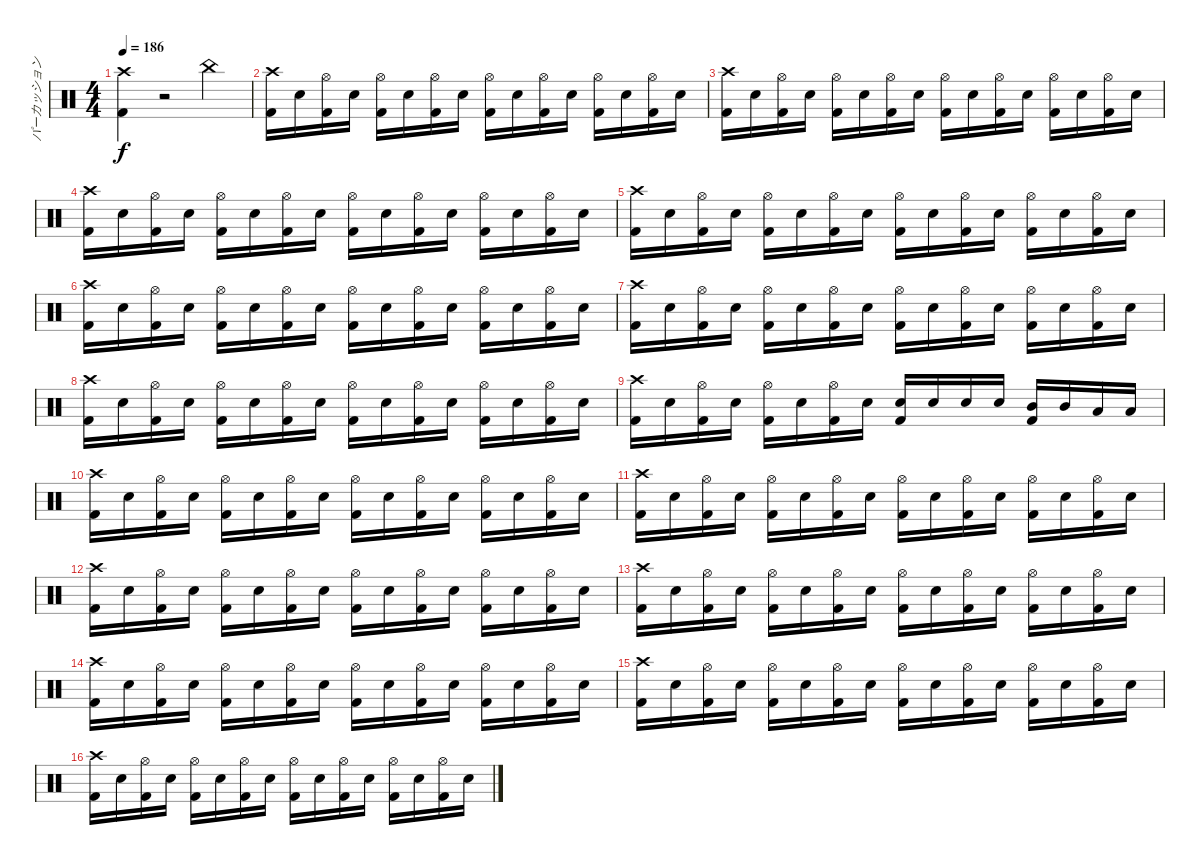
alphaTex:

\track ("パーカッション" "パーカッション") {instrument percussion}
\staff {score}
\articulation defaults
\ts (4 4)
\tempo 186
\clef neutral
\ks c
("Crash high (hit)" "Kick (hit) 2").4{dy f} r.2 "China (hit)".4 |
("Crash high (hit)" "Kick (hit) 2").16 "Snare (hit) 2".16 ("Hi-Hat (open)" "Kick (hit) 2").16 "Snare (hit) 2".16 ("Hi-Hat (open)" "Kick (hit) 2").16 "Snare (hit) 2".16 ("Hi-Hat (open)" "Kick (hit) 2").16 "Snare (hit) 2".16 ("Hi-Hat (open)" "Kick (hit) 2").16 "Snare (hit) 2".16 ("Hi-Hat (open)" "Kick (hit) 2").16 "Snare (hit) 2".16 ("Hi-Hat (open)" "Kick (hit) 2").16 "Snare (hit) 2".16 ("Hi-Hat (open)" "Kick (hit) 2").16 "Snare (hit) 2".16 |
("Crash high (hit)" "Kick (hit) 2").16 "Snare (hit) 2".16 ("Hi-Hat (open)" "Kick (hit) 2").16 "Snare (hit) 2".16 ("Hi-Hat (open)" "Kick (hit) 2").16 "Snare (hit) 2".16 ("Hi-Hat (open)" "Kick (hit) 2").16 "Snare (hit) 2".16 ("Hi-Hat (open)" "Kick (hit) 2").16 "Snare (hit) 2".16 ("Hi-Hat (open)" "Kick (hit) 2").16 "Snare (hit) 2".16 ("Hi-Hat (open)" "Kick (hit) 2").16 "Snare (hit) 2".16 ("Hi-Hat (open)" "Kick (hit) 2").16 "Snare (hit) 2".16 |
("Crash high (hit)" "Kick (hit) 2").16 "Snare (hit) 2".16 ("Hi-Hat (open)" "Kick (hit) 2").16 "Snare (hit) 2".16 ("Hi-Hat (open)" "Kick (hit) 2").16 "Snare (hit) 2".16 ("Hi-Hat (open)" "Kick (hit) 2").16 "Snare (hit) 2".16 ("Hi-Hat (open)" "Kick (hit) 2").16 "Snare (hit) 2".16 ("Hi-Hat (open)" "Kick (hit) 2").16 "Snare (hit) 2".16 ("Hi-Hat (open)" "Kick (hit) 2").16 "Snare (hit) 2".16 ("Hi-Hat (open)" "Kick (hit) 2").16 "Snare (hit) 2".16 |
("Crash high (hit)" "Kick (hit) 2").16 "Snare (hit) 2".16 ("Hi-Hat (open)" "Kick (hit) 2").16 "Snare (hit) 2".16 ("Hi-Hat (open)" "Kick (hit) 2").16 "Snare (hit) 2".16 ("Hi-Hat (open)" "Kick (hit) 2").16 "Snare (hit) 2".16 ("Hi-Hat (open)" "Kick (hit) 2").16 "Snare (hit) 2".16 ("Hi-Hat (open)" "Kick (hit) 2").16 "Snare (hit) 2".16 ("Hi-Hat (open)" "Kick (hit) 2").16 "Snare (hit) 2".16 ("Hi-Hat (open)" "Kick (hit) 2").16 "Snare (hit) 2".16 |
("Crash high (hit)" "Kick (hit) 2").16 "Snare (hit) 2".16 ("Hi-Hat (open)" "Kick (hit) 2").16 "Snare (hit) 2".16 ("Hi-Hat (open)" "Kick (hit) 2").16 "Snare (hit) 2".16 ("Hi-Hat (open)" "Kick (hit) 2").16 "Snare (hit) 2".16 ("Hi-Hat (open)" "Kick (hit) 2").16 "Snare (hit) 2".16 ("Hi-Hat (open)" "Kick (hit) 2").16 "Snare (hit) 2".16 ("Hi-Hat (open)" "Kick (hit) 2").16 "Snare (hit) 2".16 ("Hi-Hat (open)" "Kick (hit) 2").16 "Snare (hit) 2".16 |
("Crash high (hit)" "Kick (hit) 2").16 "Snare (hit) 2".16 ("Hi-Hat (open)" "Kick (hit) 2").16 "Snare (hit) 2".16 ("Hi-Hat (open)" "Kick (hit) 2").16 "Snare (hit) 2".16 ("Hi-Hat (open)" "Kick (hit) 2").16 "Snare (hit) 2".16 ("Hi-Hat (open)" "Kick (hit) 2").16 "Snare (hit) 2".16 ("Hi-Hat (open)" "Kick (hit) 2").16 "Snare (hit) 2".16 ("Hi-Hat (open)" "Kick (hit) 2").16 "Snare (hit) 2".16 ("Hi-Hat (open)" "Kick (hit) 2").16 "Snare (hit) 2".16 |
("Crash high (hit)" "Kick (hit) 2").16 "Snare (hit) 2".16 ("Hi-Hat (open)" "Kick (hit) 2").16 "Snare (hit) 2".16 ("Hi-Hat (open)" "Kick (hit) 2").16 "Snare (hit) 2".16 ("Hi-Hat (open)" "Kick (hit) 2").16 "Snare (hit) 2".16 ("Hi-Hat (open)" "Kick (hit) 2").16 "Snare (hit) 2".16 ("Hi-Hat (open)" "Kick (hit) 2").16 "Snare (hit) 2".16 ("Hi-Hat (open)" "Kick (hit) 2").16 "Snare (hit) 2".16 ("Hi-Hat (open)" "Kick (hit) 2").16 "Snare (hit) 2".16 |
("Crash high (hit)" "Kick (hit) 2").16 "Snare (hit) 2".16 ("Hi-Hat (open)" "Kick (hit) 2").16 "Snare (hit) 2".16 ("Hi-Hat (open)" "Kick (hit) 2").16 "Snare (hit) 2".16 ("Hi-Hat (open)" "Kick (hit) 2").16 "Snare (hit) 2".16 ("Snare (hit) 2" "Kick (hit) 2").16 "Snare (hit) 2".16 "Snare (hit) 2".16 "Snare (hit) 2".16 ("Mid Tom (hit)" "Kick (hit) 2").16 "Mid Tom (hit)".16 "Low Tom (hit)".16 "Low Tom (hit)".16 |
("Crash high (hit)" "Kick (hit) 2").16 "Snare (hit) 2".16 ("Hi-Hat (open)" "Kick (hit) 2").16 "Snare (hit) 2".16 ("Hi-Hat (open)" "Kick (hit) 2").16 "Snare (hit) 2".16 ("Hi-Hat (open)" "Kick (hit) 2").16 "Snare (hit) 2".16 ("Hi-Hat (open)" "Kick (hit) 2").16 "Snare (hit) 2".16 ("Hi-Hat (open)" "Kick (hit) 2").16 "Snare (hit) 2".16 ("Hi-Hat (open)" "Kick (hit) 2").16 "Snare (hit) 2".16 ("Hi-Hat (open)" "Kick (hit) 2").16 "Snare (hit) 2".16 |
("Crash high (hit)" "Kick (hit) 2").16 "Snare (hit) 2".16 ("Hi-Hat (open)" "Kick (hit) 2").16 "Snare (hit) 2".16 ("Hi-Hat (open)" "Kick (hit) 2").16 "Snare (hit) 2".16 ("Hi-Hat (open)" "Kick (hit) 2").16 "Snare (hit) 2".16 ("Hi-Hat (open)" "Kick (hit) 2").16 "Snare (hit) 2".16 ("Hi-Hat (open)" "Kick (hit) 2").16 "Snare (hit) 2".16 ("Hi-Hat (open)" "Kick (hit) 2").16 "Snare (hit) 2".16 ("Hi-Hat (open)" "Kick (hit) 2").16 "Snare (hit) 2".16 |
("Crash high (hit)" "Kick (hit) 2").16 "Snare (hit) 2".16 ("Hi-Hat (open)" "Kick (hit) 2").16 "Snare (hit) 2".16 ("Hi-Hat (open)" "Kick (hit) 2").16 "Snare (hit) 2".16 ("Hi-Hat (open)" "Kick (hit) 2").16 "Snare (hit) 2".16 ("Hi-Hat (open)" "Kick (hit) 2").16 "Snare (hit) 2".16 ("Hi-Hat (open)" "Kick (hit) 2").16 "Snare (hit) 2".16 ("Hi-Hat (open)" "Kick (hit) 2").16 "Snare (hit) 2".16 ("Hi-Hat (open)" "Kick (hit) 2").16 "Snare (hit) 2".16 |
("Crash high (hit)" "Kick (hit) 2").16 "Snare (hit) 2".16 ("Hi-Hat (open)" "Kick (hit) 2").16 "Snare (hit) 2".16 ("Hi-Hat (open)" "Kick (hit) 2").16 "Snare (hit) 2".16 ("Hi-Hat (open)" "Kick (hit) 2").16 "Snare (hit) 2".16 ("Hi-Hat (open)" "Kick (hit) 2").16 "Snare (hit) 2".16 ("Hi-Hat (open)" "Kick (hit) 2").16 "Snare (hit) 2".16 ("Hi-Hat (open)" "Kick (hit) 2").16 "Snare (hit) 2".16 ("Hi-Hat (open)" "Kick (hit) 2").16 "Snare (hit) 2".16 |
("Crash high (hit)" "Kick (hit) 2").16 "Snare (hit) 2".16 ("Hi-Hat (open)" "Kick (hit) 2").16 "Snare (hit) 2".16 ("Hi-Hat (open)" "Kick (hit) 2").16 "Snare (hit) 2".16 ("Hi-Hat (open)" "Kick (hit) 2").16 "Snare (hit) 2".16 ("Hi-Hat (open)" "Kick (hit) 2").16 "Snare (hit) 2".16 ("Hi-Hat (open)" "Kick (hit) 2").16 "Snare (hit) 2".16 ("Hi-Hat (open)" "Kick (hit) 2").16 "Snare (hit) 2".16 ("Hi-Hat (open)" "Kick (hit) 2").16 "Snare (hit) 2".16 |
("Crash high (hit)" "Kick (hit) 2").16 "Snare (hit) 2".16 ("Hi-Hat (open)" "Kick (hit) 2").16 "Snare (hit) 2".16 ("Hi-Hat (open)" "Kick (hit) 2").16 "Snare (hit) 2".16 ("Hi-Hat (open)" "Kick (hit) 2").16 "Snare (hit) 2".16 ("Hi-Hat (open)" "Kick (hit) 2").16 "Snare (hit) 2".16 ("Hi-Hat (open)" "Kick (hit) 2").16 "Snare (hit) 2".16 ("Hi-Hat (open)" "Kick (hit) 2").16 "Snare (hit) 2".16 ("Hi-Hat (open)" "Kick (hit) 2").16 "Snare (hit) 2".16 |
("Crash high (hit)" "Kick (hit) 2").16 "Snare (hit) 2".16 ("Hi-Hat (open)" "Kick (hit) 2").16 "Snare (hit) 2".16 ("Hi-Hat (open)" "Kick (hit) 2").16 "Snare (hit) 2".16 ("Hi-Hat (open)" "Kick (hit) 2").16 "Snare (hit) 2".16 ("Hi-Hat (open)" "Kick (hit) 2").16 "Snare (hit) 2".16 ("Hi-Hat (open)" "Kick (hit) 2").16 "Snare (hit) 2".16 ("Hi-Hat (open)" "Kick (hit) 2").16 "Snare (hit) 2".16 ("Hi-Hat (open)" "Kick (hit) 2").16 "Snare (hit) 2".16
